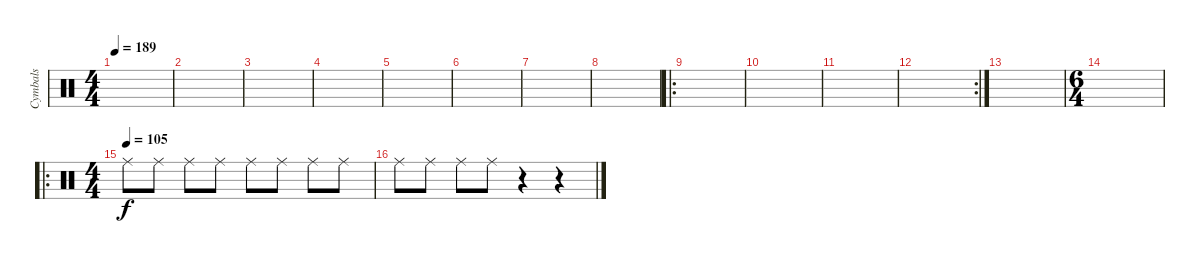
\track ("Cymbals" "Cymbals") {instrument percussion}
\staff {score}
\articulation defaults
\ts (4 4)
\tempo 189
\clef neutral
\ks c
|
|
|
|
|
|
|
|
\ro
|
|
|
\rc 2
|
|
\ts (6 4)
|
\ro
\ts (4 4)
\tempo (105)
"Ride (middle)".8 "Ride (middle)".8 "Ride (middle)".8 "Ride (middle)".8 "Ride (middle)".8 "Ride (middle)".8 "Ride (middle)".8 "Ride (middle)".8 |
"Ride (middle)".8 "Ride (middle)".8 "Ride (middle)".8 "Ride (middle)".8 r.4 r.4
